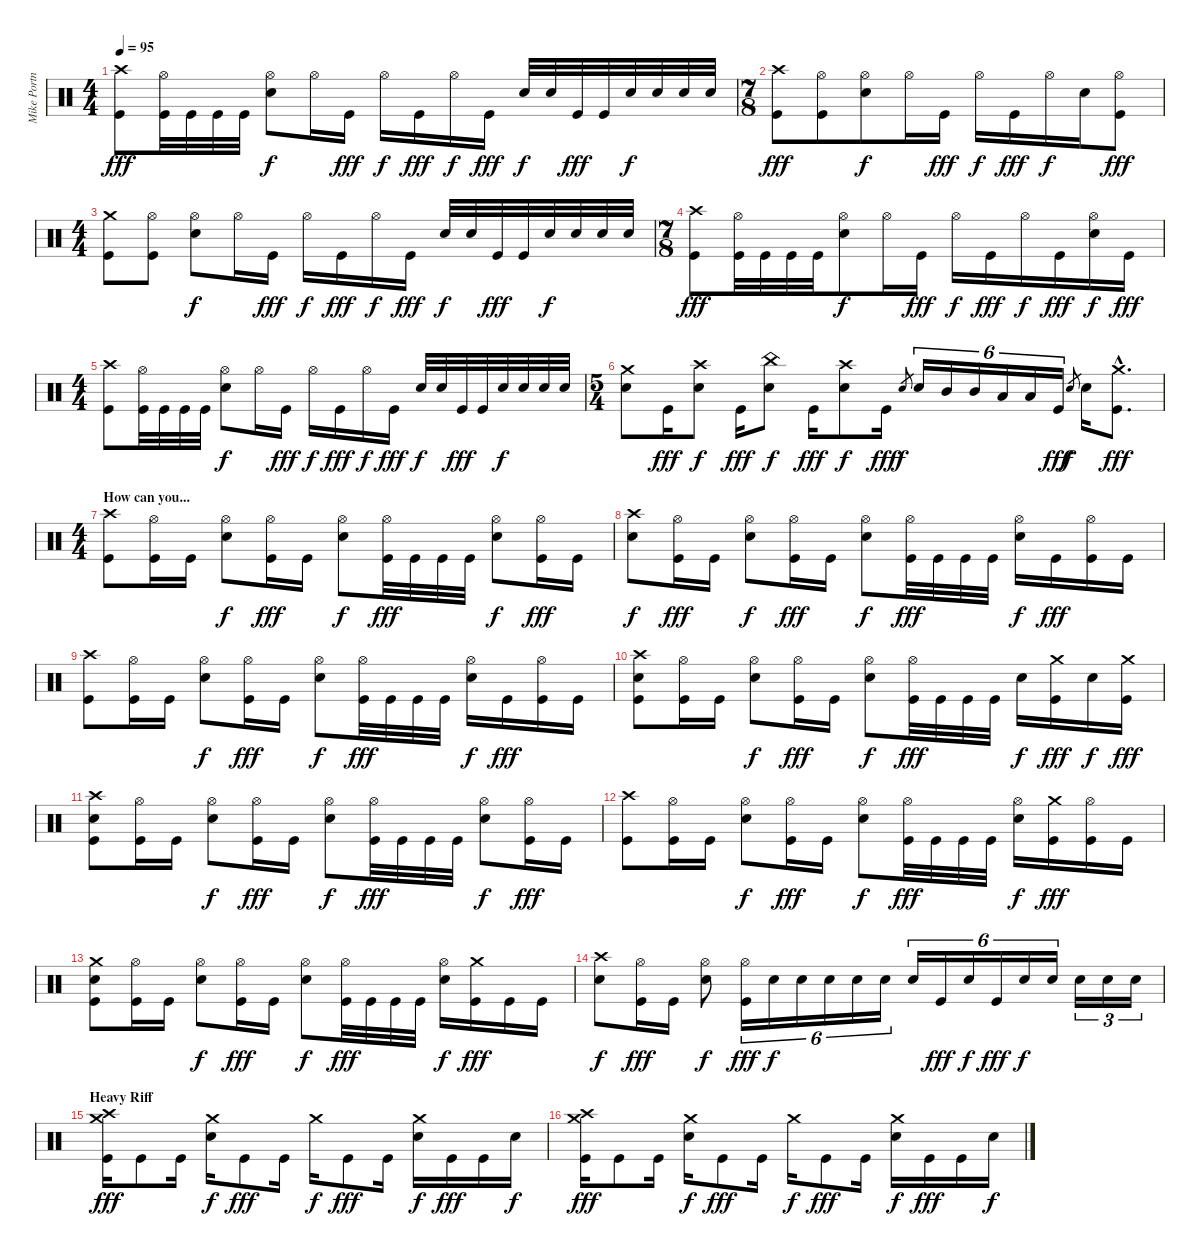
\track ("Mike Portnoy" "Mike Portn") {instrument percussion}
\staff {score}
\articulation defaults
\ts (4 4)
\tempo 95
\clef neutral
\ks c
("Crash high (hit)" "Kick (hit)").8{dy fff} ("Hi-Hat (open)" "Kick (hit)").32 "Kick (hit)".32 "Kick (hit)".32 "Kick (hit)".32 ("Hi-Hat (open)" "Electric Snare (hit)").8{dy f} "Hi-Hat (open)".16 "Kick (hit)".16{dy fff} "Hi-Hat (open)".16{dy f} "Kick (hit)".16{dy fff} "Hi-Hat (open)".16{dy f} "Kick (hit)".16{dy fff} "Electric Snare (hit)".32{dy f} "Electric Snare (hit)".32 "Kick (hit)".32{dy fff} "Kick (hit)".32 "Electric Snare (hit)".32{dy f} "Electric Snare (hit)".32 "Electric Snare (hit)".32 "Electric Snare (hit)".32 |
\ts (7 8)
("Crash high (hit)" "Kick (hit)").8{dy fff} ("Hi-Hat (open)" "Kick (hit)").8 ("Hi-Hat (open)" "Electric Snare (hit)").8{dy f} "Hi-Hat (open)".16 "Kick (hit)".16{dy fff} "Hi-Hat (open)".16{dy f} "Kick (hit)".16{dy fff} "Hi-Hat (open)".16{dy f} "Electric Snare (hit)".16 ("Hi-Hat (open)" "Kick (hit)").8{dy fff} |
\ts (4 4)
("Crash medium (hit)" "Kick (hit)").8 ("Hi-Hat (open)" "Kick (hit)").8 ("Hi-Hat (open)" "Electric Snare (hit)").8{dy f} "Hi-Hat (open)".16 "Kick (hit)".16{dy fff} "Hi-Hat (open)".16{dy f} "Kick (hit)".16{dy fff} "Hi-Hat (open)".16{dy f} "Kick (hit)".16{dy fff} "Electric Snare (hit)".32{dy f} "Electric Snare (hit)".32 "Kick (hit)".32{dy fff} "Kick (hit)".32 "Electric Snare (hit)".32{dy f} "Electric Snare (hit)".32 "Electric Snare (hit)".32 "Electric Snare (hit)".32 |
\ts (7 8)
("Crash high (hit)" "Kick (hit)").8{dy fff} ("Hi-Hat (open)" "Kick (hit)").32 "Kick (hit)".32 "Kick (hit)".32 "Kick (hit)".32 ("Hi-Hat (open)" "Electric Snare (hit)").8{dy f} "Hi-Hat (open)".16 "Kick (hit)".16{dy fff} "Hi-Hat (open)".16{dy f} "Kick (hit)".16{dy fff} "Hi-Hat (open)".16{dy f} "Kick (hit)".16{dy fff} ("Hi-Hat (open)" "Electric Snare (hit)").16{dy f} "Kick (hit)".16{dy fff} |
\ts (4 4)
("Crash high (hit)" "Kick (hit)").8 ("Hi-Hat (open)" "Kick (hit)").32 "Kick (hit)".32 "Kick (hit)".32 "Kick (hit)".32 ("Hi-Hat (open)" "Electric Snare (hit)").8{dy f} "Hi-Hat (open)".16 "Kick (hit)".16{dy fff} "Hi-Hat (open)".16{dy f} "Kick (hit)".16{dy fff} "Hi-Hat (open)".16{dy f} "Kick (hit)".16{dy fff} "Electric Snare (hit)".32{dy f} "Electric Snare (hit)".32 "Kick (hit)".32{dy fff} "Kick (hit)".32 "Electric Snare (hit)".32{dy f} "Electric Snare (hit)".32 "Electric Snare (hit)".32 "Electric Snare (hit)".32 |
\ts (5 4)
("Crash medium (hit)" "Electric Snare (hit)").8 "Kick (hit)".16{dy fff} ("Crash high (hit)" "Electric Snare (hit)").8{dy f} "Kick (hit)".16{dy fff} ("China (hit)" "Electric Snare (hit)").8{dy f} "Kick (hit)".16{dy fff} ("Crash high (hit)" "Electric Snare (hit)").8{dy f} "Kick (hit)".16{dy fff} "Electric Snare (hit)".8{gr dy f} "Electric Snare (hit)".16{tu (6 4)} "Mid Tom (hit)".16{tu (6 4)} "Mid Tom (hit)".16{tu (6 4)} "Low Tom (hit)".16{tu (6 4)} "Low Tom (hit)".16{tu (6 4)} "Kick (hit)".16{tu (6 4) dy fff} "Electric Snare (hit)".8{gr dy f} "Electric Snare (hit)".16 ("Crash medium (hit)"{hac} "Kick (hit)"{hac}).8{d dy fff} |
\ts (4 4)
\section ("" "How can you...")
("Crash high (hit)" "Kick (hit)").8 ("Hi-Hat (open)" "Kick (hit)").16 "Kick (hit)".16 ("Hi-Hat (open)" "Electric Snare (hit)").8{dy f} ("Hi-Hat (open)" "Kick (hit)").16{dy fff} "Kick (hit)".16 ("Hi-Hat (open)" "Electric Snare (hit)").8{dy f} ("Hi-Hat (open)" "Kick (hit)").32{dy fff} "Kick (hit)".32 "Kick (hit)".32 "Kick (hit)".32 ("Hi-Hat (open)" "Electric Snare (hit)").8{dy f} ("Hi-Hat (open)" "Kick (hit)").16{dy fff} "Kick (hit)".16 |
("Crash high (hit)" "Electric Snare (hit)").8{dy f} ("Hi-Hat (open)" "Kick (hit)").16{dy fff} "Kick (hit)".16 ("Hi-Hat (open)" "Electric Snare (hit)").8{dy f} ("Hi-Hat (open)" "Kick (hit)").16{dy fff} "Kick (hit)".16 ("Hi-Hat (open)" "Electric Snare (hit)").8{dy f} ("Hi-Hat (open)" "Kick (hit)").32{dy fff} "Kick (hit)".32 "Kick (hit)".32 "Kick (hit)".32 ("Hi-Hat (open)" "Electric Snare (hit)").16{dy f} "Kick (hit)".16{dy fff} ("Hi-Hat (open)" "Kick (hit)").16 "Kick (hit)".16 |
("Crash high (hit)" "Kick (hit)").8 ("Hi-Hat (open)" "Kick (hit)").16 "Kick (hit)".16 ("Hi-Hat (open)" "Electric Snare (hit)").8{dy f} ("Hi-Hat (open)" "Kick (hit)").16{dy fff} "Kick (hit)".16 ("Hi-Hat (open)" "Electric Snare (hit)").8{dy f} ("Hi-Hat (open)" "Kick (hit)").32{dy fff} "Kick (hit)".32 "Kick (hit)".32 "Kick (hit)".32 ("Hi-Hat (open)" "Electric Snare (hit)").16{dy f} "Kick (hit)".16{dy fff} ("Hi-Hat (open)" "Kick (hit)").16 "Kick (hit)".16 |
("Crash high (hit)" "Electric Snare (hit)" "Kick (hit)").8 ("Hi-Hat (open)" "Kick (hit)").16 "Kick (hit)".16 ("Hi-Hat (open)" "Electric Snare (hit)").8{dy f} ("Hi-Hat (open)" "Kick (hit)").16{dy fff} "Kick (hit)".16 ("Hi-Hat (open)" "Electric Snare (hit)").8{dy f} ("Hi-Hat (open)" "Kick (hit)").32{dy fff} "Kick (hit)".32 "Kick (hit)".32 "Kick (hit)".32 "Electric Snare (hit)".16{dy f} ("Crash medium (hit)" "Kick (hit)").16{dy fff} "Electric Snare (hit)".16{dy f} ("Crash medium (hit)" "Kick (hit)").16{dy fff} |
("Crash high (hit)" "Electric Snare (hit)" "Kick (hit)").8 ("Hi-Hat (open)" "Kick (hit)").16 "Kick (hit)".16 ("Hi-Hat (open)" "Electric Snare (hit)").8{dy f} ("Hi-Hat (open)" "Kick (hit)").16{dy fff} "Kick (hit)".16 ("Hi-Hat (open)" "Electric Snare (hit)").8{dy f} ("Hi-Hat (open)" "Kick (hit)").32{dy fff} "Kick (hit)".32 "Kick (hit)".32 "Kick (hit)".32 ("Hi-Hat (open)" "Electric Snare (hit)").8{dy f} ("Hi-Hat (open)" "Kick (hit)").16{dy fff} "Kick (hit)".16 |
("Crash high (hit)" "Kick (hit)").8 ("Hi-Hat (open)" "Kick (hit)").16 "Kick (hit)".16 ("Hi-Hat (open)" "Electric Snare (hit)").8{dy f} ("Hi-Hat (open)" "Kick (hit)").16{dy fff} "Kick (hit)".16 ("Hi-Hat (open)" "Electric Snare (hit)").8{dy f} ("Hi-Hat (open)" "Kick (hit)").32{dy fff} "Kick (hit)".32 "Kick (hit)".32 "Kick (hit)".32 ("Hi-Hat (open)" "Electric Snare (hit)").16{dy f} ("Crash medium (hit)" "Kick (hit)").16{dy fff} ("Hi-Hat (open)" "Kick (hit)").16 "Kick (hit)".16 |
("Crash medium (hit)" "Electric Snare (hit)" "Kick (hit)").8 ("Hi-Hat (open)" "Kick (hit)").16 "Kick (hit)".16 ("Hi-Hat (open)" "Electric Snare (hit)").8{dy f} ("Hi-Hat (open)" "Kick (hit)").16{dy fff} "Kick (hit)".16 ("Hi-Hat (open)" "Electric Snare (hit)").8{dy f} ("Hi-Hat (open)" "Kick (hit)").32{dy fff} "Kick (hit)".32 "Kick (hit)".32 "Kick (hit)".32 ("Hi-Hat (open)" "Electric Snare (hit)").16{dy f} ("Crash medium (hit)" "Kick (hit)").16{dy fff} "Kick (hit)".16 "Kick (hit)".16 |
("Crash high (hit)" "Electric Snare (hit)").8{dy f} ("Hi-Hat (open)" "Kick (hit)").16{dy fff} "Kick (hit)".16 ("Hi-Hat (open)" "Electric Snare (hit)").8{dy f} ("Hi-Hat (open)" "Kick (hit)").16{tu (6 4) dy fff} "Electric Snare (hit)".16{tu (6 4) dy f} "Electric Snare (hit)".16{tu (6 4)} "Electric Snare (hit)".16{tu (6 4)} "Electric Snare (hit)".16{tu (6 4)} "Electric Snare (hit)".16{tu (6 4)} "Electric Snare (hit)".16{tu (6 4)} "Kick (hit)".16{tu (6 4) dy fff} "Electric Snare (hit)".16{tu (6 4) dy f} "Kick (hit)".16{tu (6 4) dy fff} "Electric Snare (hit)".16{tu (6 4) dy f} "Electric Snare (hit)".16{tu (6 4)} "Electric Snare (hit)".16{tu (3 2)} "Electric Snare (hit)".16{tu (3 2)} "Electric Snare (hit)".16{tu (3 2)} |
\section ("" "Heavy Riff")
("Crash high (hit)" "Crash medium (hit)" "Kick (hit)").16{dy fff} "Kick (hit)".8 "Kick (hit)".16 ("Crash medium (hit)" "Electric Snare (hit)").16{dy f} "Kick (hit)".8{dy fff} "Kick (hit)".16 "Crash medium (hit)".16{dy f} "Kick (hit)".8{dy fff} "Kick (hit)".16 ("Crash medium (hit)" "Electric Snare (hit)").16{dy f} "Kick (hit)".16{dy fff} "Kick (hit)".16 "Electric Snare (hit)".16{dy f} |
("Crash high (hit)" "Crash medium (hit)" "Kick (hit)").16{dy fff} "Kick (hit)".8 "Kick (hit)".16 ("Crash medium (hit)" "Electric Snare (hit)").16{dy f} "Kick (hit)".8{dy fff} "Kick (hit)".16 "Crash medium (hit)".16{dy f} "Kick (hit)".8{dy fff} "Kick (hit)".16 ("Crash medium (hit)" "Electric Snare (hit)").16{dy f} "Kick (hit)".16{dy fff} "Kick (hit)".16 "Electric Snare (hit)".16{dy f}
